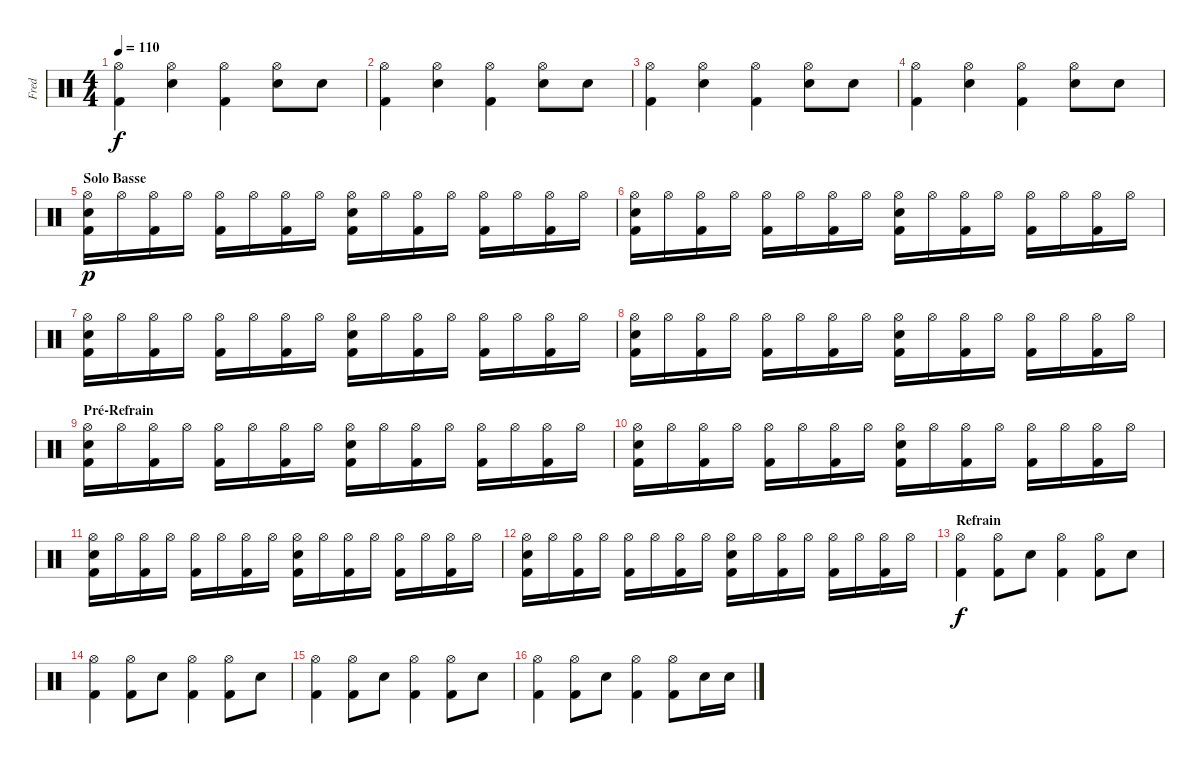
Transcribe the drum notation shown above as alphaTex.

\track ("Fred" "Fred") {instrument percussion}
\staff {score}
\articulation defaults
\ts (4 4)
\tempo 110
\clef neutral
\ks c
("Hi-Hat (open)" "Kick (hit) 2").4{dy f} ("Hi-Hat (open)" "Electric Snare (hit)").4 ("Hi-Hat (open)" "Kick (hit) 2").4 ("Hi-Hat (open)" "Electric Snare (hit)").8 "Electric Snare (hit)".8 |
("Hi-Hat (open)" "Kick (hit) 2").4 ("Hi-Hat (open)" "Electric Snare (hit)").4 ("Hi-Hat (open)" "Kick (hit) 2").4 ("Hi-Hat (open)" "Electric Snare (hit)").8 "Electric Snare (hit)".8 |
("Hi-Hat (open)" "Kick (hit) 2").4 ("Hi-Hat (open)" "Electric Snare (hit)").4 ("Hi-Hat (open)" "Kick (hit) 2").4 ("Hi-Hat (open)" "Electric Snare (hit)").8 "Electric Snare (hit)".8 |
("Hi-Hat (open)" "Kick (hit) 2").4 ("Hi-Hat (open)" "Electric Snare (hit)").4 ("Hi-Hat (open)" "Kick (hit) 2").4 ("Hi-Hat (open)" "Electric Snare (hit)").8 "Electric Snare (hit)".8 |
\section ("" "Solo Basse")
("Hi-Hat (open)" "Electric Snare (hit)" "Kick (hit) 2").16{dy p} "Hi-Hat (open)".16 ("Hi-Hat (open)" "Kick (hit) 2").16 "Hi-Hat (open)".16 ("Hi-Hat (open)" "Kick (hit) 2").16 "Hi-Hat (open)".16 ("Hi-Hat (open)" "Kick (hit) 2").16 "Hi-Hat (open)".16 ("Hi-Hat (open)" "Electric Snare (hit)" "Kick (hit) 2").16 "Hi-Hat (open)".16 ("Hi-Hat (open)" "Kick (hit) 2").16 "Hi-Hat (open)".16 ("Hi-Hat (open)" "Kick (hit) 2").16 "Hi-Hat (open)".16 ("Hi-Hat (open)" "Kick (hit) 2").16 "Hi-Hat (open)".16 |
("Hi-Hat (open)" "Electric Snare (hit)" "Kick (hit) 2").16 "Hi-Hat (open)".16 ("Hi-Hat (open)" "Kick (hit) 2").16 "Hi-Hat (open)".16 ("Hi-Hat (open)" "Kick (hit) 2").16 "Hi-Hat (open)".16 ("Hi-Hat (open)" "Kick (hit) 2").16 "Hi-Hat (open)".16 ("Hi-Hat (open)" "Electric Snare (hit)" "Kick (hit) 2").16 "Hi-Hat (open)".16 ("Hi-Hat (open)" "Kick (hit) 2").16 "Hi-Hat (open)".16 ("Hi-Hat (open)" "Kick (hit) 2").16 "Hi-Hat (open)".16 ("Hi-Hat (open)" "Kick (hit) 2").16 "Hi-Hat (open)".16 |
("Hi-Hat (open)" "Electric Snare (hit)" "Kick (hit) 2").16 "Hi-Hat (open)".16 ("Hi-Hat (open)" "Kick (hit) 2").16 "Hi-Hat (open)".16 ("Hi-Hat (open)" "Kick (hit) 2").16 "Hi-Hat (open)".16 ("Hi-Hat (open)" "Kick (hit) 2").16 "Hi-Hat (open)".16 ("Hi-Hat (open)" "Electric Snare (hit)" "Kick (hit) 2").16 "Hi-Hat (open)".16 ("Hi-Hat (open)" "Kick (hit) 2").16 "Hi-Hat (open)".16 ("Hi-Hat (open)" "Kick (hit) 2").16 "Hi-Hat (open)".16 ("Hi-Hat (open)" "Kick (hit) 2").16 "Hi-Hat (open)".16 |
("Hi-Hat (open)" "Electric Snare (hit)" "Kick (hit) 2").16 "Hi-Hat (open)".16 ("Hi-Hat (open)" "Kick (hit) 2").16 "Hi-Hat (open)".16 ("Hi-Hat (open)" "Kick (hit) 2").16 "Hi-Hat (open)".16 ("Hi-Hat (open)" "Kick (hit) 2").16 "Hi-Hat (open)".16 ("Hi-Hat (open)" "Electric Snare (hit)" "Kick (hit) 2").16 "Hi-Hat (open)".16 ("Hi-Hat (open)" "Kick (hit) 2").16 "Hi-Hat (open)".16 ("Hi-Hat (open)" "Kick (hit) 2").16 "Hi-Hat (open)".16 ("Hi-Hat (open)" "Kick (hit) 2").16 "Hi-Hat (open)".16 |
\section ("" "Pré-Refrain")
("Hi-Hat (open)" "Electric Snare (hit)" "Kick (hit) 2").16 "Hi-Hat (open)".16 ("Hi-Hat (open)" "Kick (hit) 2").16 "Hi-Hat (open)".16 ("Hi-Hat (open)" "Kick (hit) 2").16 "Hi-Hat (open)".16 ("Hi-Hat (open)" "Kick (hit) 2").16 "Hi-Hat (open)".16 ("Hi-Hat (open)" "Electric Snare (hit)" "Kick (hit) 2").16 "Hi-Hat (open)".16 ("Hi-Hat (open)" "Kick (hit) 2").16 "Hi-Hat (open)".16 ("Hi-Hat (open)" "Kick (hit) 2").16 "Hi-Hat (open)".16 ("Hi-Hat (open)" "Kick (hit) 2").16 "Hi-Hat (open)".16 |
("Hi-Hat (open)" "Electric Snare (hit)" "Kick (hit) 2").16 "Hi-Hat (open)".16 ("Hi-Hat (open)" "Kick (hit) 2").16 "Hi-Hat (open)".16 ("Hi-Hat (open)" "Kick (hit) 2").16 "Hi-Hat (open)".16 ("Hi-Hat (open)" "Kick (hit) 2").16 "Hi-Hat (open)".16 ("Hi-Hat (open)" "Electric Snare (hit)" "Kick (hit) 2").16 "Hi-Hat (open)".16 ("Hi-Hat (open)" "Kick (hit) 2").16 "Hi-Hat (open)".16 ("Hi-Hat (open)" "Kick (hit) 2").16 "Hi-Hat (open)".16 ("Hi-Hat (open)" "Kick (hit) 2").16 "Hi-Hat (open)".16 |
("Hi-Hat (open)" "Electric Snare (hit)" "Kick (hit) 2").16 "Hi-Hat (open)".16 ("Hi-Hat (open)" "Kick (hit) 2").16 "Hi-Hat (open)".16 ("Hi-Hat (open)" "Kick (hit) 2").16 "Hi-Hat (open)".16 ("Hi-Hat (open)" "Kick (hit) 2").16 "Hi-Hat (open)".16 ("Hi-Hat (open)" "Electric Snare (hit)" "Kick (hit) 2").16 "Hi-Hat (open)".16 ("Hi-Hat (open)" "Kick (hit) 2").16 "Hi-Hat (open)".16 ("Hi-Hat (open)" "Kick (hit) 2").16 "Hi-Hat (open)".16 ("Hi-Hat (open)" "Kick (hit) 2").16 "Hi-Hat (open)".16 |
("Hi-Hat (open)" "Electric Snare (hit)" "Kick (hit) 2").16 "Hi-Hat (open)".16 ("Hi-Hat (open)" "Kick (hit) 2").16 "Hi-Hat (open)".16 ("Hi-Hat (open)" "Kick (hit) 2").16 "Hi-Hat (open)".16 ("Hi-Hat (open)" "Kick (hit) 2").16 "Hi-Hat (open)".16 ("Hi-Hat (open)" "Electric Snare (hit)" "Kick (hit) 2").16 "Hi-Hat (open)".16 ("Hi-Hat (open)" "Kick (hit) 2").16 "Hi-Hat (open)".16 ("Hi-Hat (open)" "Kick (hit) 2").16 "Hi-Hat (open)".16 ("Hi-Hat (open)" "Kick (hit) 2").16 "Hi-Hat (open)".16 |
\section ("" "Refrain")
("Hi-Hat (open)" "Kick (hit) 2").4{dy f} ("Hi-Hat (open)" "Kick (hit) 2").8 "Electric Snare (hit)".8 ("Hi-Hat (open)" "Kick (hit) 2").4 ("Hi-Hat (open)" "Kick (hit) 2").8 "Electric Snare (hit)".8 |
("Hi-Hat (open)" "Kick (hit) 2").4 ("Hi-Hat (open)" "Kick (hit) 2").8 "Electric Snare (hit)".8 ("Hi-Hat (open)" "Kick (hit) 2").4 ("Hi-Hat (open)" "Kick (hit) 2").8 "Electric Snare (hit)".8 |
("Hi-Hat (open)" "Kick (hit) 2").4 ("Hi-Hat (open)" "Kick (hit) 2").8 "Electric Snare (hit)".8 ("Hi-Hat (open)" "Kick (hit) 2").4 ("Hi-Hat (open)" "Kick (hit) 2").8 "Electric Snare (hit)".8 |
("Hi-Hat (open)" "Kick (hit) 2").4 ("Hi-Hat (open)" "Kick (hit) 2").8 "Electric Snare (hit)".8 ("Hi-Hat (open)" "Kick (hit) 2").4 ("Hi-Hat (open)" "Kick (hit) 2").8 "Electric Snare (hit)".16 "Electric Snare (hit)".16
